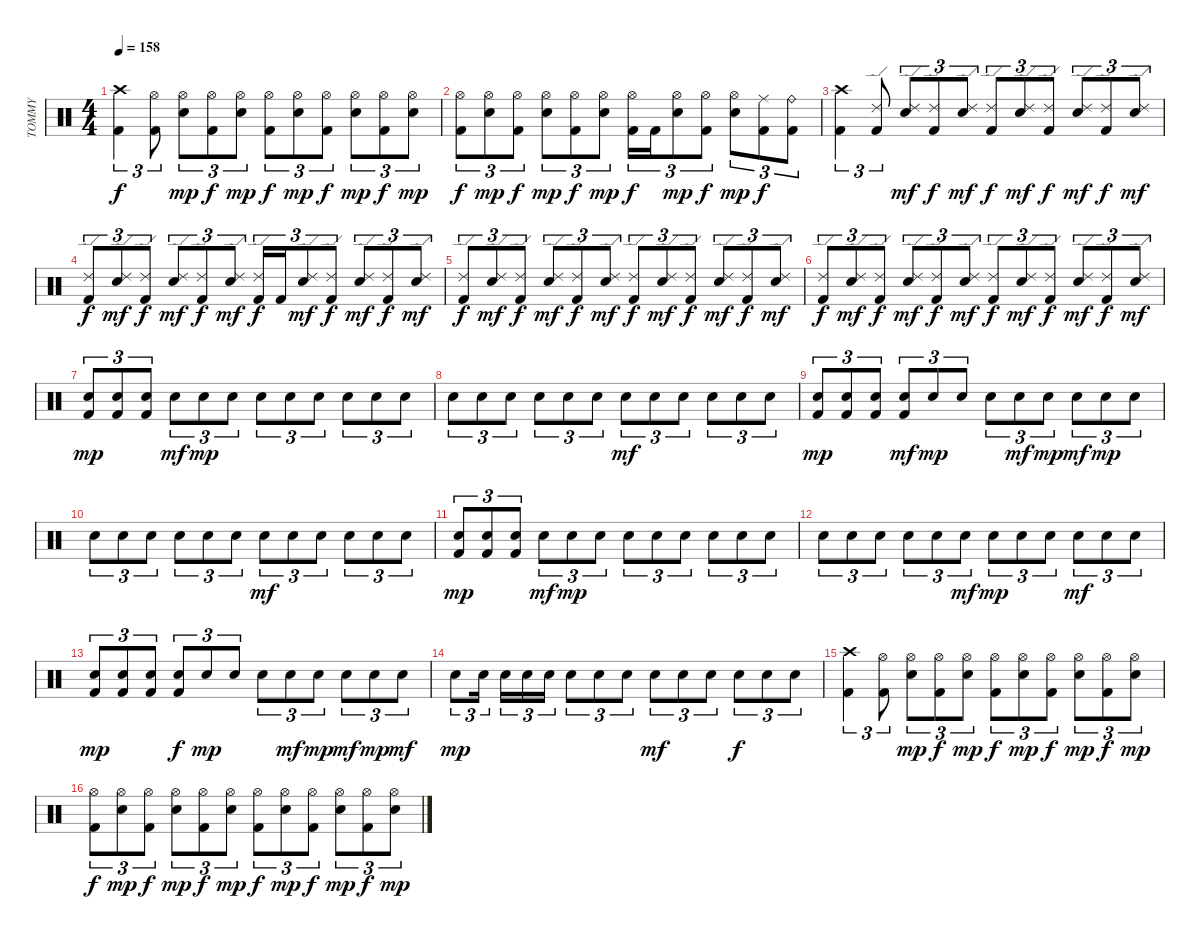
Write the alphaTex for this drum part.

\track ("TOMMY" "TOMMY") {instrument percussion}
\staff {score}
\articulation defaults
\ts (4 4)
\tempo 158
\clef neutral
\ks c
("Kick (hit) 2" "Crash high (hit)").4{tu (3 2) dy f} ("Kick (hit) 2" "Hi-Hat (open)").8{tu (3 2)} ("Snare (hit) 2" "Hi-Hat (open)").8{tu (3 2) dy mp} ("Kick (hit) 2" "Hi-Hat (open)").8{tu (3 2) dy f} ("Snare (hit) 2" "Hi-Hat (open)").8{tu (3 2) dy mp} ("Kick (hit) 2" "Hi-Hat (open)").8{tu (3 2) dy f} ("Snare (hit) 2" "Hi-Hat (open)").8{tu (3 2) dy mp} ("Kick (hit) 2" "Hi-Hat (open)").8{tu (3 2) dy f} ("Snare (hit) 2" "Hi-Hat (open)").8{tu (3 2) dy mp} ("Kick (hit) 2" "Hi-Hat (open)").8{tu (3 2) dy f} ("Snare (hit) 2" "Hi-Hat (open)").8{tu (3 2) dy mp} |
("Kick (hit) 2" "Hi-Hat (open)").8{tu (3 2) dy f} ("Snare (hit) 2" "Hi-Hat (open)").8{tu (3 2) dy mp} ("Kick (hit) 2" "Hi-Hat (open)").8{tu (3 2) dy f} ("Snare (hit) 2" "Hi-Hat (open)").8{tu (3 2) dy mp} ("Kick (hit) 2" "Hi-Hat (open)").8{tu (3 2) dy f} ("Snare (hit) 2" "Hi-Hat (open)").8{tu (3 2) dy mp} ("Kick (hit) 2" "Hi-Hat (open)").16{tu (3 2) dy f} "Kick (hit) 2".16{tu (3 2)} ("Snare (hit) 2" "Hi-Hat (open)").8{tu (3 2) dy mp} ("Kick (hit) 2" "Hi-Hat (open)").8{tu (3 2) dy f} ("Snare (hit) 2" "Hi-Hat (open)").8{tu (3 2) dy mp} ("Kick (hit) 2" "Ride (middle)").8{tu (3 2) dy f} ("Kick (hit) 2" "Ride (bell)").8{tu (3 2)} |
("Kick (hit) 2" "Crash high (hit)").4{tu (3 2)} ("Kick (hit) 2" "Ride (edge) 2").8{tu (3 2)} ("Snare (hit) 2" "Ride (edge) 2").8{tu (3 2) dy mf} ("Kick (hit) 2" "Ride (edge) 2").8{tu (3 2) dy f} ("Snare (hit) 2" "Ride (edge) 2").8{tu (3 2) dy mf} ("Kick (hit) 2" "Ride (edge) 2").8{tu (3 2) dy f} ("Snare (hit) 2" "Ride (edge) 2").8{tu (3 2) dy mf} ("Kick (hit) 2" "Ride (edge) 2").8{tu (3 2) dy f} ("Snare (hit) 2" "Ride (edge) 2").8{tu (3 2) dy mf} ("Kick (hit) 2" "Ride (edge) 2").8{tu (3 2) dy f} ("Snare (hit) 2" "Ride (edge) 2").8{tu (3 2) dy mf} |
("Kick (hit) 2" "Ride (edge) 2").8{tu (3 2) dy f} ("Snare (hit) 2" "Ride (edge) 2").8{tu (3 2) dy mf} ("Kick (hit) 2" "Ride (edge) 2").8{tu (3 2) dy f} ("Snare (hit) 2" "Ride (edge) 2").8{tu (3 2) dy mf} ("Kick (hit) 2" "Ride (edge) 2").8{tu (3 2) dy f} ("Snare (hit) 2" "Ride (edge) 2").8{tu (3 2) dy mf} ("Kick (hit) 2" "Ride (edge) 2").16{tu (3 2) dy f} "Kick (hit) 2".16{tu (3 2)} ("Snare (hit) 2" "Ride (edge) 2").8{tu (3 2) dy mf} ("Kick (hit) 2" "Ride (edge) 2").8{tu (3 2) dy f} ("Snare (hit) 2" "Ride (edge) 2").8{tu (3 2) dy mf} ("Kick (hit) 2" "Ride (edge) 2").8{tu (3 2) dy f} ("Snare (hit) 2" "Ride (edge) 2").8{tu (3 2) dy mf} |
("Kick (hit) 2" "Ride (edge) 2").8{tu (3 2) dy f} ("Snare (hit) 2" "Ride (edge) 2").8{tu (3 2) dy mf} ("Kick (hit) 2" "Ride (edge) 2").8{tu (3 2) dy f} ("Snare (hit) 2" "Ride (edge) 2").8{tu (3 2) dy mf} ("Kick (hit) 2" "Ride (edge) 2").8{tu (3 2) dy f} ("Snare (hit) 2" "Ride (edge) 2").8{tu (3 2) dy mf} ("Kick (hit) 2" "Ride (edge) 2").8{tu (3 2) dy f} ("Snare (hit) 2" "Ride (edge) 2").8{tu (3 2) dy mf} ("Kick (hit) 2" "Ride (edge) 2").8{tu (3 2) dy f} ("Snare (hit) 2" "Ride (edge) 2").8{tu (3 2) dy mf} ("Kick (hit) 2" "Ride (edge) 2").8{tu (3 2) dy f} ("Snare (hit) 2" "Ride (edge) 2").8{tu (3 2) dy mf} |
("Kick (hit) 2" "Ride (edge) 2").8{tu (3 2) dy f} ("Snare (hit) 2" "Ride (edge) 2").8{tu (3 2) dy mf} ("Kick (hit) 2" "Ride (edge) 2").8{tu (3 2) dy f} ("Snare (hit) 2" "Ride (edge) 2").8{tu (3 2) dy mf} ("Kick (hit) 2" "Ride (edge) 2").8{tu (3 2) dy f} ("Snare (hit) 2" "Ride (edge) 2").8{tu (3 2) dy mf} ("Kick (hit) 2" "Ride (edge) 2").8{tu (3 2) dy f} ("Snare (hit) 2" "Ride (edge) 2").8{tu (3 2) dy mf} ("Kick (hit) 2" "Ride (edge) 2").8{tu (3 2) dy f} ("Snare (hit) 2" "Ride (edge) 2").8{tu (3 2) dy mf} ("Kick (hit) 2" "Ride (edge) 2").8{tu (3 2) dy f} ("Snare (hit) 2" "Ride (edge) 2").8{tu (3 2) dy mf} |
("Snare (hit) 2" "Kick (hit) 2").8{tu (3 2) dy mp} ("Snare (hit) 2" "Kick (hit) 2").8{tu (3 2)} ("Snare (hit) 2" "Kick (hit) 2").8{tu (3 2)} "Snare (hit) 2".8{tu (3 2) dy mf} "Snare (hit) 2".8{tu (3 2) dy mp} "Snare (hit) 2".8{tu (3 2)} "Snare (hit) 2".8{tu (3 2)} "Snare (hit) 2".8{tu (3 2)} "Snare (hit) 2".8{tu (3 2)} "Snare (hit) 2".8{tu (3 2)} "Snare (hit) 2".8{tu (3 2)} "Snare (hit) 2".8{tu (3 2)} |
"Snare (hit) 2".8{tu (3 2)} "Snare (hit) 2".8{tu (3 2)} "Snare (hit) 2".8{tu (3 2)} "Snare (hit) 2".8{tu (3 2)} "Snare (hit) 2".8{tu (3 2)} "Snare (hit) 2".8{tu (3 2)} "Snare (hit) 2".8{tu (3 2) dy mf} "Snare (hit) 2".8{tu (3 2)} "Snare (hit) 2".8{tu (3 2)} "Snare (hit) 2".8{tu (3 2)} "Snare (hit) 2".8{tu (3 2)} "Snare (hit) 2".8{tu (3 2)} |
("Snare (hit) 2" "Kick (hit) 2").8{tu (3 2) dy mp} ("Snare (hit) 2" "Kick (hit) 2").8{tu (3 2)} ("Snare (hit) 2" "Kick (hit) 2").8{tu (3 2)} ("Snare (hit) 2" "Kick (hit) 2").8{tu (3 2) dy mf} "Snare (hit) 2".8{tu (3 2) dy mp} "Snare (hit) 2".8{tu (3 2)} "Snare (hit) 2".8{tu (3 2)} "Snare (hit) 2".8{tu (3 2) dy mf} "Snare (hit) 2".8{tu (3 2) dy mp} "Snare (hit) 2".8{tu (3 2) dy mf} "Snare (hit) 2".8{tu (3 2) dy mp} "Snare (hit) 2".8{tu (3 2)} |
"Snare (hit) 2".8{tu (3 2)} "Snare (hit) 2".8{tu (3 2)} "Snare (hit) 2".8{tu (3 2)} "Snare (hit) 2".8{tu (3 2)} "Snare (hit) 2".8{tu (3 2)} "Snare (hit) 2".8{tu (3 2)} "Snare (hit) 2".8{tu (3 2) dy mf} "Snare (hit) 2".8{tu (3 2)} "Snare (hit) 2".8{tu (3 2)} "Snare (hit) 2".8{tu (3 2)} "Snare (hit) 2".8{tu (3 2)} "Snare (hit) 2".8{tu (3 2)} |
("Snare (hit) 2" "Kick (hit) 2").8{tu (3 2) dy mp} ("Snare (hit) 2" "Kick (hit) 2").8{tu (3 2)} ("Snare (hit) 2" "Kick (hit) 2").8{tu (3 2)} "Snare (hit) 2".8{tu (3 2) dy mf} "Snare (hit) 2".8{tu (3 2) dy mp} "Snare (hit) 2".8{tu (3 2)} "Snare (hit) 2".8{tu (3 2)} "Snare (hit) 2".8{tu (3 2)} "Snare (hit) 2".8{tu (3 2)} "Snare (hit) 2".8{tu (3 2)} "Snare (hit) 2".8{tu (3 2)} "Snare (hit) 2".8{tu (3 2)} |
"Snare (hit) 2".8{tu (3 2)} "Snare (hit) 2".8{tu (3 2)} "Snare (hit) 2".8{tu (3 2)} "Snare (hit) 2".8{tu (3 2)} "Snare (hit) 2".8{tu (3 2)} "Snare (hit) 2".8{tu (3 2) dy mf} "Snare (hit) 2".8{tu (3 2) dy mp} "Snare (hit) 2".8{tu (3 2)} "Snare (hit) 2".8{tu (3 2)} "Snare (hit) 2".8{tu (3 2) dy mf} "Snare (hit) 2".8{tu (3 2)} "Snare (hit) 2".8{tu (3 2)} |
("Snare (hit) 2" "Kick (hit) 2").8{tu (3 2) dy mp} ("Snare (hit) 2" "Kick (hit) 2").8{tu (3 2)} ("Snare (hit) 2" "Kick (hit) 2").8{tu (3 2)} ("Snare (hit) 2" "Kick (hit) 2").8{tu (3 2) dy f} "Snare (hit) 2".8{tu (3 2) dy mp} "Snare (hit) 2".8{tu (3 2)} "Snare (hit) 2".8{tu (3 2)} "Snare (hit) 2".8{tu (3 2) dy mf} "Snare (hit) 2".8{tu (3 2) dy mp} "Snare (hit) 2".8{tu (3 2) dy mf} "Snare (hit) 2".8{tu (3 2) dy mp} "Snare (hit) 2".8{tu (3 2) dy mf} |
"Snare (hit) 2".8{tu (3 2) dy mp} "Snare (hit) 2".16{tu (3 2)} "Snare (hit) 2".16{tu (3 2)} "Snare (hit) 2".16{tu (3 2)} "Snare (hit) 2".16{tu (3 2)} "Snare (hit) 2".8{tu (3 2)} "Snare (hit) 2".8{tu (3 2)} "Snare (hit) 2".8{tu (3 2)} "Snare (hit) 2".8{tu (3 2) dy mf} "Snare (hit) 2".8{tu (3 2)} "Snare (hit) 2".8{tu (3 2)} "Snare (hit) 2".8{tu (3 2) dy f} "Snare (hit) 2".8{tu (3 2)} "Snare (hit) 2".8{tu (3 2)} |
("Kick (hit) 2" "Crash high (hit)").4{tu (3 2)} ("Kick (hit) 2" "Hi-Hat (open)").8{tu (3 2)} ("Snare (hit) 2" "Hi-Hat (open)").8{tu (3 2) dy mp} ("Kick (hit) 2" "Hi-Hat (open)").8{tu (3 2) dy f} ("Snare (hit) 2" "Hi-Hat (open)").8{tu (3 2) dy mp} ("Kick (hit) 2" "Hi-Hat (open)").8{tu (3 2) dy f} ("Snare (hit) 2" "Hi-Hat (open)").8{tu (3 2) dy mp} ("Kick (hit) 2" "Hi-Hat (open)").8{tu (3 2) dy f} ("Snare (hit) 2" "Hi-Hat (open)").8{tu (3 2) dy mp} ("Kick (hit) 2" "Hi-Hat (open)").8{tu (3 2) dy f} ("Snare (hit) 2" "Hi-Hat (open)").8{tu (3 2) dy mp} |
("Kick (hit) 2" "Hi-Hat (open)").8{tu (3 2) dy f} ("Snare (hit) 2" "Hi-Hat (open)").8{tu (3 2) dy mp} ("Kick (hit) 2" "Hi-Hat (open)").8{tu (3 2) dy f} ("Snare (hit) 2" "Hi-Hat (open)").8{tu (3 2) dy mp} ("Kick (hit) 2" "Hi-Hat (open)").8{tu (3 2) dy f} ("Snare (hit) 2" "Hi-Hat (open)").8{tu (3 2) dy mp} ("Kick (hit) 2" "Hi-Hat (open)").8{tu (3 2) dy f} ("Snare (hit) 2" "Hi-Hat (open)").8{tu (3 2) dy mp} ("Kick (hit) 2" "Hi-Hat (open)").8{tu (3 2) dy f} ("Snare (hit) 2" "Hi-Hat (open)").8{tu (3 2) dy mp} ("Kick (hit) 2" "Hi-Hat (open)").8{tu (3 2) dy f} ("Snare (hit) 2" "Hi-Hat (open)").8{tu (3 2) dy mp}
